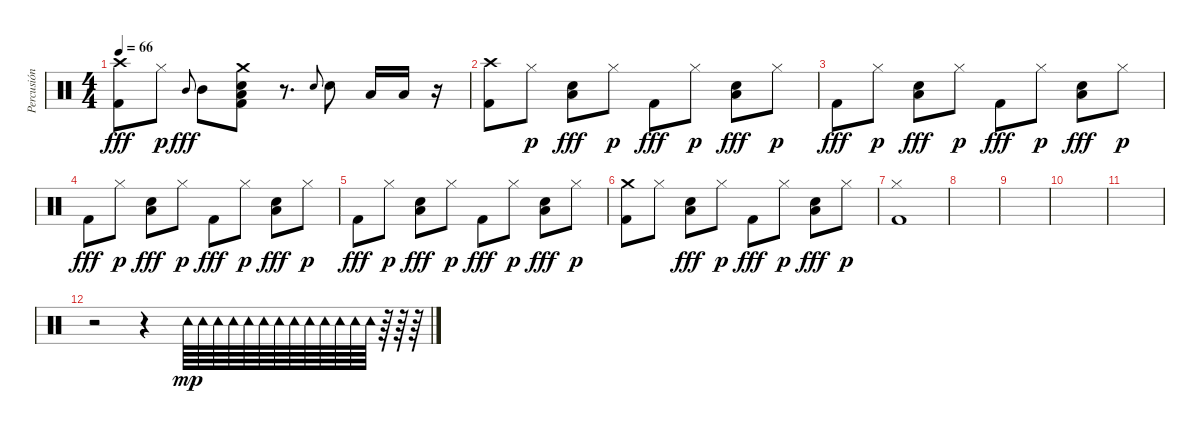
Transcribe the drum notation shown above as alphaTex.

\track ("Percusión" "Percusión") {instrument percussion}
\staff {score}
\articulation defaults
\ts (4 4)
\tempo 66
\clef neutral
\ks c
("Kick (hit) 2" "Crash high (hit)").8{dy fff} "Hi-Hat (closed)".8{dy p} "Mid Tom (hit)".8{gr onbeat dy fff} "Mid Tom (hit)".8 ("Low Tom (hit)" "Kick (hit) 2" "Snare (hit) 2" "Crash medium (hit)").8 r.8{d} "Electric Snare (hit)".8{gr onbeat} "Electric Snare (hit)".8 "Low Tom (hit)".16 "Low Tom (hit)".16 r.16 |
("Kick (hit) 2" "Crash high (hit)").8 "Hi-Hat (closed)".8{dy p} ("Electric Snare (hit)" "Low Floor Tom (hit)").8{dy fff} "Hi-Hat (closed)".8{dy p} "Kick (hit) 2".8{dy fff} "Hi-Hat (closed)".8{dy p} ("Electric Snare (hit)" "Low Floor Tom (hit)").8{dy fff} "Hi-Hat (closed)".8{dy p} |
"Kick (hit) 2".8{dy fff} "Hi-Hat (closed)".8{dy p} ("Electric Snare (hit)" "Low Floor Tom (hit)").8{dy fff} "Hi-Hat (closed)".8{dy p} "Kick (hit) 2".8{dy fff} "Hi-Hat (closed)".8{dy p} ("Electric Snare (hit)" "Low Floor Tom (hit)").8{dy fff} "Hi-Hat (closed)".8{dy p} |
"Kick (hit) 2".8{dy fff} "Hi-Hat (closed)".8{dy p} ("Electric Snare (hit)" "Low Floor Tom (hit)").8{dy fff} "Hi-Hat (closed)".8{dy p} "Kick (hit) 2".8{dy fff} "Hi-Hat (closed)".8{dy p} ("Electric Snare (hit)" "Low Floor Tom (hit)").8{dy fff} "Hi-Hat (closed)".8{dy p} |
"Kick (hit) 2".8{dy fff} "Hi-Hat (closed)".8{dy p} ("Electric Snare (hit)" "Low Floor Tom (hit)").8{dy fff} "Hi-Hat (closed)".8{dy p} "Kick (hit) 2".8{dy fff} "Hi-Hat (closed)".8{dy p} ("Electric Snare (hit)" "Low Floor Tom (hit)").8{dy fff} "Hi-Hat (closed)".8{dy p} |
("Kick (hit) 2" "Crash medium (hit)").8 "Hi-Hat (closed)".8 ("Electric Snare (hit)" "Low Floor Tom (hit)").8{dy fff} "Hi-Hat (closed)".8{dy p} "Kick (hit) 2".8{dy fff} "Hi-Hat (closed)".8{dy p} ("Electric Snare (hit)" "Low Floor Tom (hit)").8{dy fff} "Hi-Hat (closed)".8{dy p} |
("Kick (hit) 2" "Hi-Hat (closed)").1 |
|
|
|
|
r.2{volume 3} r.4 "Tambourine (hit)".64{dy mp} "Tambourine (hit)".64 "Tambourine (hit)".64 "Tambourine (hit)".64 "Tambourine (hit)".64 "Tambourine (hit)".64 "Tambourine (hit)".64 "Tambourine (hit)".64 "Tambourine (hit)".64 "Tambourine (hit)".64 "Tambourine (hit)".64 "Tambourine (hit)".64 "Tambourine (hit)".64 r.64 r.64 r.64
